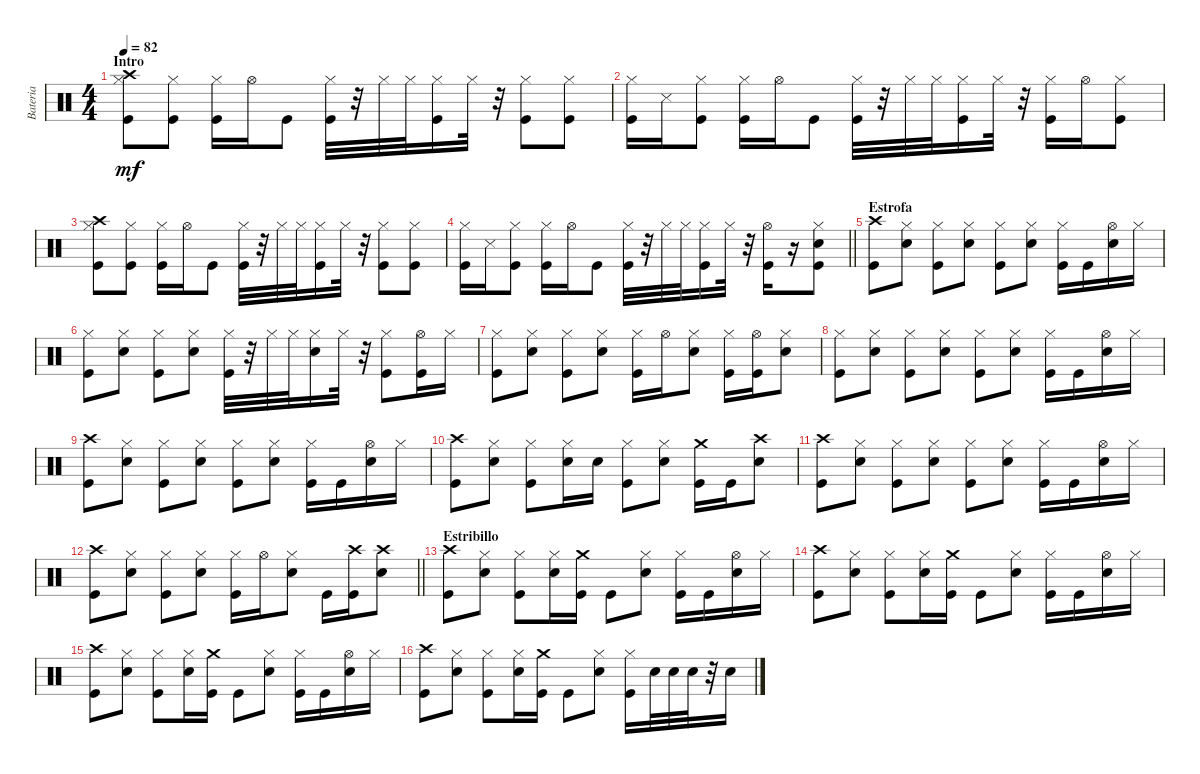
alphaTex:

\track ("Bateria" "Bateria") {instrument percussion}
\staff {score}
\articulation defaults
\ts (4 4)
\section ("" "Intro")
\tempo 82
\clef neutral
\ks c
("Kick (hit)" "Hi-Hat (closed)" "Crash high (hit)").8{dy mf} ("Kick (hit)" "Hi-Hat (closed)").8 ("Kick (hit)" "Hi-Hat (closed)").16 "Hi-Hat (open)".16 "Kick (hit)".8 ("Kick (hit)" "Hi-Hat (closed)").32 r.32 "Hi-Hat (closed)".32 "Hi-Hat (closed)".32 ("Hi-Hat (closed)" "Kick (hit)").16 "Hi-Hat (closed)".32 r.32 ("Kick (hit)" "Hi-Hat (closed)").8 ("Kick (hit)" "Hi-Hat (closed)").8 |
("Kick (hit)" "Hi-Hat (closed)").16 "Snare (side stick) 3".16 ("Kick (hit)" "Hi-Hat (closed)").8 ("Kick (hit)" "Hi-Hat (closed)").16 "Hi-Hat (open)".16 "Kick (hit)".8 ("Kick (hit)" "Hi-Hat (closed)").32 r.32 "Hi-Hat (closed)".32 "Hi-Hat (closed)".32 ("Hi-Hat (closed)" "Kick (hit)").16 "Hi-Hat (closed)".32 r.32 ("Kick (hit)" "Hi-Hat (closed)").16 "Hi-Hat (open)".16 ("Kick (hit)" "Hi-Hat (closed)").8 |
("Kick (hit)" "Hi-Hat (closed)" "Crash high (hit)").8 ("Kick (hit)" "Hi-Hat (closed)").8 ("Kick (hit)" "Hi-Hat (closed)").16 "Hi-Hat (open)".16 "Kick (hit)".8 ("Kick (hit)" "Hi-Hat (closed)").32 r.32 "Hi-Hat (closed)".32 "Hi-Hat (closed)".32 ("Hi-Hat (closed)" "Kick (hit)").16 "Hi-Hat (closed)".32 r.32 ("Kick (hit)" "Hi-Hat (closed)").8 ("Kick (hit)" "Hi-Hat (closed)").8 |
\barLineRight lightlight
("Kick (hit)" "Hi-Hat (closed)").16 "Snare (side stick) 3".16 ("Kick (hit)" "Hi-Hat (closed)").8 ("Kick (hit)" "Hi-Hat (closed)").16 "Hi-Hat (open)".16 "Kick (hit)".8 ("Kick (hit)" "Hi-Hat (closed)").32 r.32 "Hi-Hat (closed)".32 "Hi-Hat (closed)".32 ("Hi-Hat (closed)" "Kick (hit)").16 "Hi-Hat (closed)".32 r.32 ("Kick (hit)" "Hi-Hat (open)").16 r.16 ("Kick (hit)" "Hi-Hat (closed)" "Snare (hit) 2").8 |
\section ("" "Estrofa")
("Crash high (hit)" "Kick (hit)").8 ("Snare (hit) 2" "Hi-Hat (closed)").8 ("Kick (hit)" "Hi-Hat (closed)").8 ("Hi-Hat (closed)" "Snare (hit) 2").8 ("Kick (hit)" "Hi-Hat (closed)").8 ("Snare (hit) 2" "Hi-Hat (closed)").8 ("Kick (hit)" "Hi-Hat (closed)").16 "Kick (hit)".16 ("Hi-Hat (open)" "Snare (hit) 2").16 "Hi-Hat (closed)".16 |
("Kick (hit)" "Hi-Hat (closed)").8 ("Snare (hit) 2" "Hi-Hat (closed)").8 ("Kick (hit)" "Hi-Hat (closed)").8 ("Hi-Hat (closed)" "Snare (hit) 2").8 ("Kick (hit)" "Hi-Hat (closed)").32 r.32 "Hi-Hat (closed)".32 "Hi-Hat (closed)".32 ("Hi-Hat (closed)" "Snare (hit) 2").16 "Hi-Hat (closed)".32 r.32 ("Kick (hit)" "Hi-Hat (closed)").8 ("Kick (hit)" "Hi-Hat (open)").16 "Hi-Hat (closed)".16 |
("Kick (hit)" "Hi-Hat (closed)").8 ("Snare (hit) 2" "Hi-Hat (closed)").8 ("Kick (hit)" "Hi-Hat (closed)").8 ("Hi-Hat (closed)" "Snare (hit) 2").8 ("Kick (hit)" "Hi-Hat (closed)").16 "Hi-Hat (open)".16 ("Snare (hit) 2" "Hi-Hat (closed)").8 ("Kick (hit)" "Hi-Hat (closed)").16 ("Kick (hit)" "Hi-Hat (open)").16 ("Hi-Hat (closed)" "Snare (hit) 2").8 |
("Kick (hit)" "Hi-Hat (closed)").8 ("Snare (hit) 2" "Hi-Hat (closed)").8 ("Kick (hit)" "Hi-Hat (closed)").8 ("Hi-Hat (closed)" "Snare (hit) 2").8 ("Kick (hit)" "Hi-Hat (closed)").8 ("Snare (hit) 2" "Hi-Hat (closed)").8 ("Kick (hit)" "Hi-Hat (closed)").16 "Kick (hit)".16 ("Hi-Hat (open)" "Snare (hit) 2").16 "Hi-Hat (closed)".16 |
("Crash high (hit)" "Kick (hit)").8 ("Snare (hit) 2" "Hi-Hat (closed)").8 ("Kick (hit)" "Hi-Hat (closed)").8 ("Hi-Hat (closed)" "Snare (hit) 2").8 ("Kick (hit)" "Hi-Hat (closed)").8 ("Snare (hit) 2" "Hi-Hat (closed)").8 ("Kick (hit)" "Hi-Hat (closed)").16 "Kick (hit)".16 ("Hi-Hat (open)" "Snare (hit) 2").16 "Hi-Hat (closed)".16 |
("Crash high (hit)" "Kick (hit)").8 ("Snare (hit) 2" "Hi-Hat (closed)").8 ("Kick (hit)" "Hi-Hat (closed)").8 ("Hi-Hat (closed)" "Snare (hit) 2").16 "Snare (hit) 2".16 ("Kick (hit)" "Hi-Hat (closed)").8 ("Snare (hit) 2" "Hi-Hat (closed)").8 ("Kick (hit)" "Crash medium (hit)").16 "Kick (hit)".16 ("Snare (hit) 2" "Crash high (hit)").8 |
("Crash high (hit)" "Kick (hit)").8 ("Snare (hit) 2" "Hi-Hat (closed)").8 ("Kick (hit)" "Hi-Hat (closed)").8 ("Hi-Hat (closed)" "Snare (hit) 2").8 ("Kick (hit)" "Hi-Hat (closed)").8 ("Snare (hit) 2" "Hi-Hat (closed)").8 ("Kick (hit)" "Hi-Hat (closed)").16 "Kick (hit)".16 ("Hi-Hat (open)" "Snare (hit) 2").16 "Hi-Hat (closed)".16 |
\barLineRight lightlight
("Crash high (hit)" "Kick (hit)").8 ("Snare (hit) 2" "Hi-Hat (closed)").8 ("Kick (hit)" "Hi-Hat (closed)").8 ("Hi-Hat (closed)" "Snare (hit) 2").8 ("Kick (hit)" "Hi-Hat (closed)").16 "Hi-Hat (open)".16 ("Snare (hit) 2" "Hi-Hat (closed)").8 "Kick (hit)".16 ("Kick (hit)" "Crash high (hit)").16 ("Snare (hit) 2" "Crash high (hit)").8 |
\section ("" "Estribillo")
("Crash high (hit)" "Kick (hit)").8 ("Snare (hit) 2" "Hi-Hat (closed)").8 ("Kick (hit)" "Hi-Hat (closed)").8 ("Hi-Hat (closed)" "Snare (hit) 2").16 ("Kick (hit)" "Crash medium (hit)").16 "Kick (hit)".8 ("Snare (hit) 2" "Hi-Hat (closed)").8 ("Kick (hit)" "Hi-Hat (closed)").16 "Kick (hit)".16 ("Hi-Hat (open)" "Snare (hit) 2").16 "Hi-Hat (closed)".16 |
("Crash high (hit)" "Kick (hit)").8 ("Snare (hit) 2" "Hi-Hat (closed)").8 ("Kick (hit)" "Hi-Hat (closed)").8 ("Hi-Hat (closed)" "Snare (hit) 2").16 ("Kick (hit)" "Crash medium (hit)").16 "Kick (hit)".8 ("Snare (hit) 2" "Hi-Hat (closed)").8 ("Kick (hit)" "Hi-Hat (closed)").16 "Kick (hit)".16 ("Hi-Hat (open)" "Snare (hit) 2").16 "Hi-Hat (closed)".16 |
("Crash high (hit)" "Kick (hit)").8 ("Snare (hit) 2" "Hi-Hat (closed)").8 ("Kick (hit)" "Hi-Hat (closed)").8 ("Hi-Hat (closed)" "Snare (hit) 2").16 ("Kick (hit)" "Crash medium (hit)").16 "Kick (hit)".8 ("Snare (hit) 2" "Hi-Hat (closed)").8 ("Kick (hit)" "Hi-Hat (closed)").16 "Kick (hit)".16 ("Hi-Hat (open)" "Snare (hit) 2").16 "Hi-Hat (closed)".16 |
("Crash high (hit)" "Kick (hit)").8 ("Snare (hit) 2" "Hi-Hat (closed)").8 ("Kick (hit)" "Hi-Hat (closed)").8 ("Hi-Hat (closed)" "Snare (hit) 2").16 ("Kick (hit)" "Crash medium (hit)").16 "Kick (hit)".8 ("Snare (hit) 2" "Hi-Hat (closed)").8 ("Kick (hit)" "Hi-Hat (closed)").16 "Snare (hit) 2".32 "Snare (hit) 2".32 "Snare (hit) 2".32 r.32 "Snare (hit) 2".16
